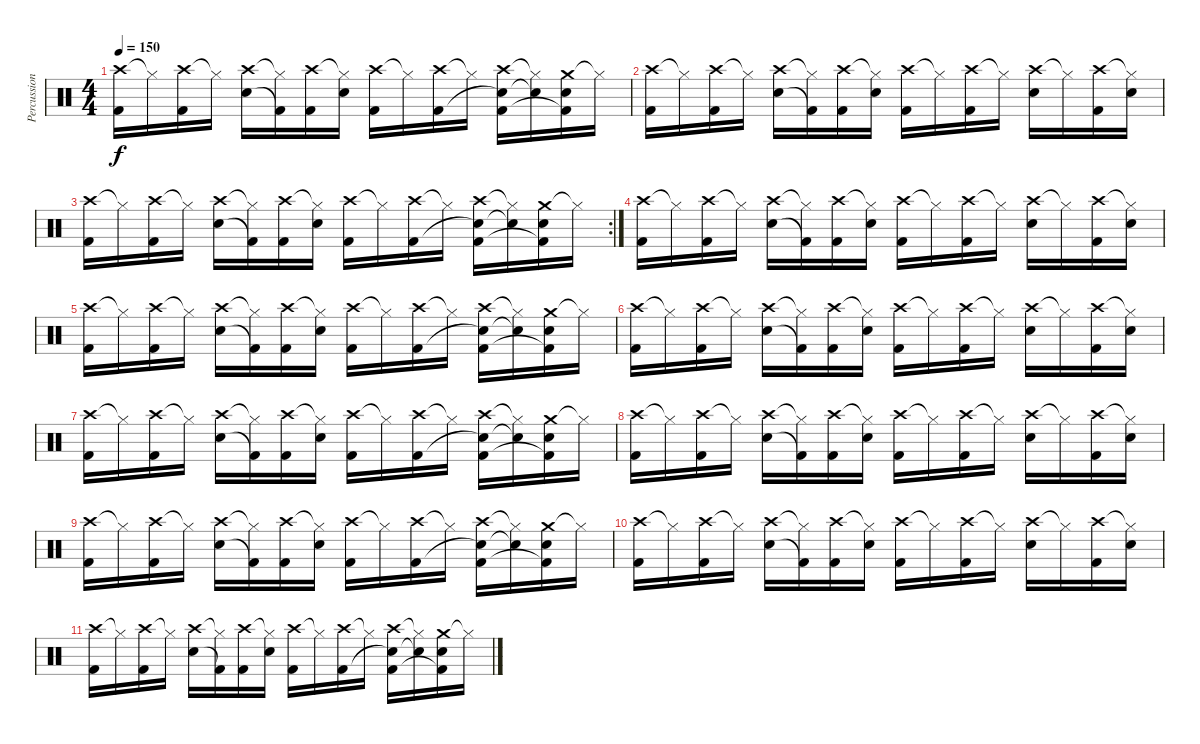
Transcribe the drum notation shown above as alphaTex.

\track ("Percussion" "Percussion") {instrument percussion}
\staff {score}
\articulation defaults
\ts (4 4)
\tempo 150
\clef neutral
\ks c
("Crash high (hit)" "Kick (hit) 2").16{dy f} "Hi-Hat (closed)"{t}.16 ("Crash high (hit)" "Kick (hit) 2").16 "Hi-Hat (closed)"{t}.16 ("Crash high (hit)" "Electric Snare (hit)").16 ("Hi-Hat (closed)"{t} "Kick (hit) 2"{t}).16 ("Crash high (hit)" "Kick (hit) 2").16 ("Hi-Hat (closed)"{t} "Electric Snare (hit)").16 ("Crash high (hit)" "Kick (hit) 2").16 "Hi-Hat (closed)"{t}.16 ("Crash high (hit)" "Kick (hit) 2").16 "Hi-Hat (closed)"{t}.16 ("Crash high (hit)" "Electric Snare (hit)"{t} "Kick (hit) 2").16 ("Hi-Hat (closed)"{t} "Electric Snare (hit)"{t}).16 ("Crash medium (hit)" "Electric Snare (hit)" "Kick (hit) 2"{t}).16 "Hi-Hat (closed)"{t}.16 |
("Crash high (hit)" "Kick (hit) 2").16 "Hi-Hat (closed)"{t}.16 ("Crash high (hit)" "Kick (hit) 2").16 "Hi-Hat (closed)"{t}.16 ("Crash high (hit)" "Electric Snare (hit)").16 ("Hi-Hat (closed)"{t} "Kick (hit) 2"{t}).16 ("Crash high (hit)" "Kick (hit) 2").16 ("Hi-Hat (closed)"{t} "Electric Snare (hit)").16 ("Crash high (hit)" "Kick (hit) 2").16 "Hi-Hat (closed)"{t}.16 ("Crash high (hit)" "Kick (hit) 2").16 "Hi-Hat (closed)"{t}.16 ("Crash high (hit)" "Electric Snare (hit)").16 "Hi-Hat (closed)"{t}.16 ("Crash high (hit)" "Kick (hit) 2").16 ("Hi-Hat (closed)"{t} "Electric Snare (hit)").16 |
\rc 2
("Crash high (hit)" "Kick (hit) 2").16 "Hi-Hat (closed)"{t}.16 ("Crash high (hit)" "Kick (hit) 2").16 "Hi-Hat (closed)"{t}.16 ("Crash high (hit)" "Electric Snare (hit)").16 ("Hi-Hat (closed)"{t} "Kick (hit) 2"{t}).16 ("Crash high (hit)" "Kick (hit) 2").16 ("Hi-Hat (closed)"{t} "Electric Snare (hit)").16 ("Crash high (hit)" "Kick (hit) 2").16 "Hi-Hat (closed)"{t}.16 ("Crash high (hit)" "Kick (hit) 2").16 "Hi-Hat (closed)"{t}.16 ("Crash high (hit)" "Electric Snare (hit)"{t} "Kick (hit) 2").16 ("Hi-Hat (closed)"{t} "Electric Snare (hit)"{t}).16 ("Crash medium (hit)" "Electric Snare (hit)" "Kick (hit) 2"{t}).16 "Hi-Hat (closed)"{t}.16 |
("Crash high (hit)" "Kick (hit) 2").16 "Hi-Hat (closed)"{t}.16 ("Crash high (hit)" "Kick (hit) 2").16 "Hi-Hat (closed)"{t}.16 ("Crash high (hit)" "Electric Snare (hit)").16 ("Hi-Hat (closed)"{t} "Kick (hit) 2"{t}).16 ("Crash high (hit)" "Kick (hit) 2").16 ("Hi-Hat (closed)"{t} "Electric Snare (hit)").16 ("Crash high (hit)" "Kick (hit) 2").16 "Hi-Hat (closed)"{t}.16 ("Crash high (hit)" "Kick (hit) 2").16 "Hi-Hat (closed)"{t}.16 ("Crash high (hit)" "Electric Snare (hit)").16 "Hi-Hat (closed)"{t}.16 ("Crash high (hit)" "Kick (hit) 2").16 ("Hi-Hat (closed)"{t} "Electric Snare (hit)").16 |
("Crash high (hit)" "Kick (hit) 2").16 "Hi-Hat (closed)"{t}.16 ("Crash high (hit)" "Kick (hit) 2").16 "Hi-Hat (closed)"{t}.16 ("Crash high (hit)" "Electric Snare (hit)").16 ("Hi-Hat (closed)"{t} "Kick (hit) 2"{t}).16 ("Crash high (hit)" "Kick (hit) 2").16 ("Hi-Hat (closed)"{t} "Electric Snare (hit)").16 ("Crash high (hit)" "Kick (hit) 2").16 "Hi-Hat (closed)"{t}.16 ("Crash high (hit)" "Kick (hit) 2").16 "Hi-Hat (closed)"{t}.16 ("Crash high (hit)" "Electric Snare (hit)"{t} "Kick (hit) 2").16 ("Hi-Hat (closed)"{t} "Electric Snare (hit)"{t}).16 ("Crash medium (hit)" "Electric Snare (hit)" "Kick (hit) 2"{t}).16 "Hi-Hat (closed)"{t}.16 |
("Crash high (hit)" "Kick (hit) 2").16 "Hi-Hat (closed)"{t}.16 ("Crash high (hit)" "Kick (hit) 2").16 "Hi-Hat (closed)"{t}.16 ("Crash high (hit)" "Electric Snare (hit)").16 ("Hi-Hat (closed)"{t} "Kick (hit) 2"{t}).16 ("Crash high (hit)" "Kick (hit) 2").16 ("Hi-Hat (closed)"{t} "Electric Snare (hit)").16 ("Crash high (hit)" "Kick (hit) 2").16 "Hi-Hat (closed)"{t}.16 ("Crash high (hit)" "Kick (hit) 2").16 "Hi-Hat (closed)"{t}.16 ("Crash high (hit)" "Electric Snare (hit)").16 "Hi-Hat (closed)"{t}.16 ("Crash high (hit)" "Kick (hit) 2").16 ("Hi-Hat (closed)"{t} "Electric Snare (hit)").16 |
("Crash high (hit)" "Kick (hit) 2").16 "Hi-Hat (closed)"{t}.16 ("Crash high (hit)" "Kick (hit) 2").16 "Hi-Hat (closed)"{t}.16 ("Crash high (hit)" "Electric Snare (hit)").16 ("Hi-Hat (closed)"{t} "Kick (hit) 2"{t}).16 ("Crash high (hit)" "Kick (hit) 2").16 ("Hi-Hat (closed)"{t} "Electric Snare (hit)").16 ("Crash high (hit)" "Kick (hit) 2").16 "Hi-Hat (closed)"{t}.16 ("Crash high (hit)" "Kick (hit) 2").16 "Hi-Hat (closed)"{t}.16 ("Crash high (hit)" "Electric Snare (hit)"{t} "Kick (hit) 2").16 ("Hi-Hat (closed)"{t} "Electric Snare (hit)"{t}).16 ("Crash medium (hit)" "Electric Snare (hit)" "Kick (hit) 2"{t}).16 "Hi-Hat (closed)"{t}.16 |
("Crash high (hit)" "Kick (hit) 2").16 "Hi-Hat (closed)"{t}.16 ("Crash high (hit)" "Kick (hit) 2").16 "Hi-Hat (closed)"{t}.16 ("Crash high (hit)" "Electric Snare (hit)").16 ("Hi-Hat (closed)"{t} "Kick (hit) 2"{t}).16 ("Crash high (hit)" "Kick (hit) 2").16 ("Hi-Hat (closed)"{t} "Electric Snare (hit)").16 ("Crash high (hit)" "Kick (hit) 2").16 "Hi-Hat (closed)"{t}.16 ("Crash high (hit)" "Kick (hit) 2").16 "Hi-Hat (closed)"{t}.16 ("Crash high (hit)" "Electric Snare (hit)").16 "Hi-Hat (closed)"{t}.16 ("Crash high (hit)" "Kick (hit) 2").16 ("Hi-Hat (closed)"{t} "Electric Snare (hit)").16 |
("Crash high (hit)" "Kick (hit) 2").16 "Hi-Hat (closed)"{t}.16 ("Crash high (hit)" "Kick (hit) 2").16 "Hi-Hat (closed)"{t}.16 ("Crash high (hit)" "Electric Snare (hit)").16 ("Hi-Hat (closed)"{t} "Kick (hit) 2"{t}).16 ("Crash high (hit)" "Kick (hit) 2").16 ("Hi-Hat (closed)"{t} "Electric Snare (hit)").16 ("Crash high (hit)" "Kick (hit) 2").16 "Hi-Hat (closed)"{t}.16 ("Crash high (hit)" "Kick (hit) 2").16 "Hi-Hat (closed)"{t}.16 ("Crash high (hit)" "Electric Snare (hit)"{t} "Kick (hit) 2").16 ("Hi-Hat (closed)"{t} "Electric Snare (hit)"{t}).16 ("Crash medium (hit)" "Electric Snare (hit)" "Kick (hit) 2"{t}).16 "Hi-Hat (closed)"{t}.16 |
("Crash high (hit)" "Kick (hit) 2").16 "Hi-Hat (closed)"{t}.16 ("Crash high (hit)" "Kick (hit) 2").16 "Hi-Hat (closed)"{t}.16 ("Crash high (hit)" "Electric Snare (hit)").16 ("Hi-Hat (closed)"{t} "Kick (hit) 2"{t}).16 ("Crash high (hit)" "Kick (hit) 2").16 ("Hi-Hat (closed)"{t} "Electric Snare (hit)").16 ("Crash high (hit)" "Kick (hit) 2").16 "Hi-Hat (closed)"{t}.16 ("Crash high (hit)" "Kick (hit) 2").16 "Hi-Hat (closed)"{t}.16 ("Crash high (hit)" "Electric Snare (hit)").16 "Hi-Hat (closed)"{t}.16 ("Crash high (hit)" "Kick (hit) 2").16 ("Hi-Hat (closed)"{t} "Electric Snare (hit)").16 |
("Crash high (hit)" "Kick (hit) 2").16 "Hi-Hat (closed)"{t}.16 ("Crash high (hit)" "Kick (hit) 2").16 "Hi-Hat (closed)"{t}.16 ("Crash high (hit)" "Electric Snare (hit)").16 ("Hi-Hat (closed)"{t} "Kick (hit) 2"{t}).16 ("Crash high (hit)" "Kick (hit) 2").16 ("Hi-Hat (closed)"{t} "Electric Snare (hit)").16 ("Crash high (hit)" "Kick (hit) 2").16 "Hi-Hat (closed)"{t}.16 ("Crash high (hit)" "Kick (hit) 2").16 "Hi-Hat (closed)"{t}.16 ("Crash high (hit)" "Electric Snare (hit)"{t} "Kick (hit) 2").16 ("Hi-Hat (closed)"{t} "Electric Snare (hit)"{t}).16 ("Crash medium (hit)" "Electric Snare (hit)" "Kick (hit) 2"{t}).16 "Hi-Hat (closed)"{t}.16
